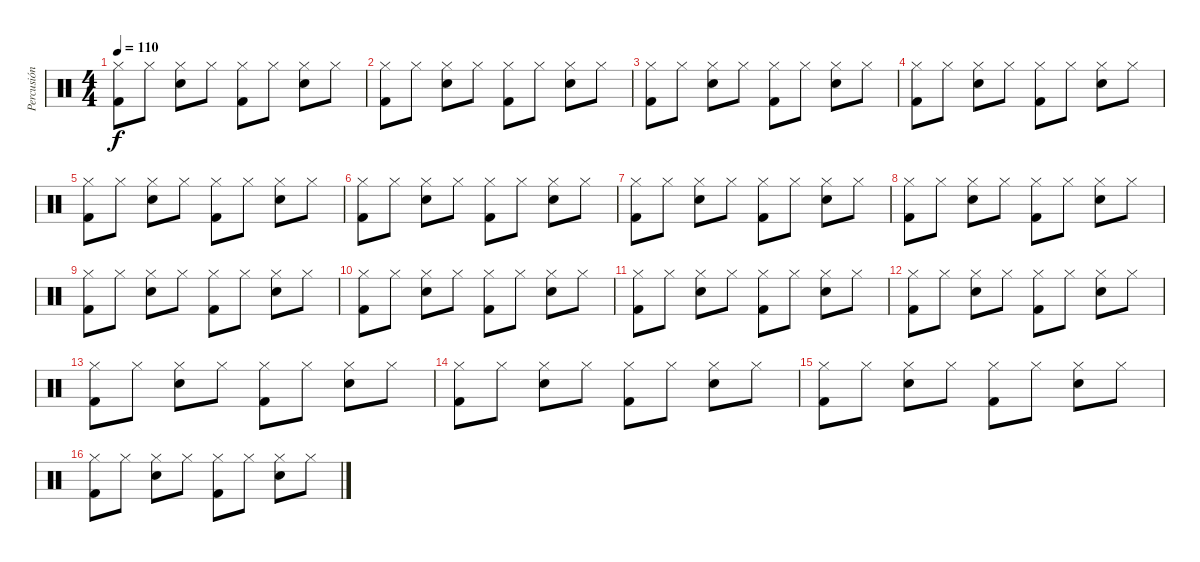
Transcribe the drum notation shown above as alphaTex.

\track ("Percusión" "Percusión") {instrument percussion}
\staff {score}
\articulation defaults
\ts (4 4)
\tempo 110
\clef neutral
\ks c
("Kick (hit) 2" "Hi-Hat (closed)").8{dy f} "Hi-Hat (closed)".8 ("Snare (hit) 2" "Hi-Hat (closed)").8 "Hi-Hat (closed)".8 ("Kick (hit) 2" "Hi-Hat (closed)").8 "Hi-Hat (closed)".8 ("Snare (hit) 2" "Hi-Hat (closed)").8 "Hi-Hat (closed)".8 |
("Kick (hit) 2" "Hi-Hat (closed)").8 "Hi-Hat (closed)".8 ("Snare (hit) 2" "Hi-Hat (closed)").8 "Hi-Hat (closed)".8 ("Kick (hit) 2" "Hi-Hat (closed)").8 "Hi-Hat (closed)".8 ("Snare (hit) 2" "Hi-Hat (closed)").8 "Hi-Hat (closed)".8 |
("Kick (hit) 2" "Hi-Hat (closed)").8 "Hi-Hat (closed)".8 ("Snare (hit) 2" "Hi-Hat (closed)").8 "Hi-Hat (closed)".8 ("Kick (hit) 2" "Hi-Hat (closed)").8 "Hi-Hat (closed)".8 ("Snare (hit) 2" "Hi-Hat (closed)").8 "Hi-Hat (closed)".8 |
("Kick (hit) 2" "Hi-Hat (closed)").8 "Hi-Hat (closed)".8 ("Snare (hit) 2" "Hi-Hat (closed)").8 "Hi-Hat (closed)".8 ("Kick (hit) 2" "Hi-Hat (closed)").8 "Hi-Hat (closed)".8 ("Snare (hit) 2" "Hi-Hat (closed)").8 "Hi-Hat (closed)".8 |
("Kick (hit) 2" "Hi-Hat (closed)").8 "Hi-Hat (closed)".8 ("Snare (hit) 2" "Hi-Hat (closed)").8 "Hi-Hat (closed)".8 ("Kick (hit) 2" "Hi-Hat (closed)").8 "Hi-Hat (closed)".8 ("Snare (hit) 2" "Hi-Hat (closed)").8 "Hi-Hat (closed)".8 |
("Kick (hit) 2" "Hi-Hat (closed)").8 "Hi-Hat (closed)".8 ("Snare (hit) 2" "Hi-Hat (closed)").8 "Hi-Hat (closed)".8 ("Kick (hit) 2" "Hi-Hat (closed)").8 "Hi-Hat (closed)".8 ("Snare (hit) 2" "Hi-Hat (closed)").8 "Hi-Hat (closed)".8 |
("Kick (hit) 2" "Hi-Hat (closed)").8 "Hi-Hat (closed)".8 ("Snare (hit) 2" "Hi-Hat (closed)").8 "Hi-Hat (closed)".8 ("Kick (hit) 2" "Hi-Hat (closed)").8 "Hi-Hat (closed)".8 ("Snare (hit) 2" "Hi-Hat (closed)").8 "Hi-Hat (closed)".8 |
("Kick (hit) 2" "Hi-Hat (closed)").8 "Hi-Hat (closed)".8 ("Snare (hit) 2" "Hi-Hat (closed)").8 "Hi-Hat (closed)".8 ("Kick (hit) 2" "Hi-Hat (closed)").8 "Hi-Hat (closed)".8 ("Snare (hit) 2" "Hi-Hat (closed)").8 "Hi-Hat (closed)".8 |
("Kick (hit) 2" "Hi-Hat (closed)").8 "Hi-Hat (closed)".8 ("Snare (hit) 2" "Hi-Hat (closed)").8 "Hi-Hat (closed)".8 ("Kick (hit) 2" "Hi-Hat (closed)").8 "Hi-Hat (closed)".8 ("Snare (hit) 2" "Hi-Hat (closed)").8 "Hi-Hat (closed)".8 |
("Kick (hit) 2" "Hi-Hat (closed)").8 "Hi-Hat (closed)".8 ("Snare (hit) 2" "Hi-Hat (closed)").8 "Hi-Hat (closed)".8 ("Kick (hit) 2" "Hi-Hat (closed)").8 "Hi-Hat (closed)".8 ("Snare (hit) 2" "Hi-Hat (closed)").8 "Hi-Hat (closed)".8 |
("Kick (hit) 2" "Hi-Hat (closed)").8 "Hi-Hat (closed)".8 ("Snare (hit) 2" "Hi-Hat (closed)").8 "Hi-Hat (closed)".8 ("Kick (hit) 2" "Hi-Hat (closed)").8 "Hi-Hat (closed)".8 ("Snare (hit) 2" "Hi-Hat (closed)").8 "Hi-Hat (closed)".8 |
("Kick (hit) 2" "Hi-Hat (closed)").8 "Hi-Hat (closed)".8 ("Snare (hit) 2" "Hi-Hat (closed)").8 "Hi-Hat (closed)".8 ("Kick (hit) 2" "Hi-Hat (closed)").8 "Hi-Hat (closed)".8 ("Snare (hit) 2" "Hi-Hat (closed)").8 "Hi-Hat (closed)".8 |
("Kick (hit) 2" "Hi-Hat (closed)").8{volume 13} "Hi-Hat (closed)".8{volume 12} ("Snare (hit) 2" "Hi-Hat (closed)").8{volume 12} "Hi-Hat (closed)".8{volume 12} ("Kick (hit) 2" "Hi-Hat (closed)").8{volume 11} "Hi-Hat (closed)".8{volume 11} ("Snare (hit) 2" "Hi-Hat (closed)").8{volume 10} "Hi-Hat (closed)".8{volume 10} |
("Kick (hit) 2" "Hi-Hat (closed)").8{volume 9} "Hi-Hat (closed)".8{volume 9} ("Snare (hit) 2" "Hi-Hat (closed)").8{volume 8} "Hi-Hat (closed)".8{volume 8} ("Kick (hit) 2" "Hi-Hat (closed)").8{volume 8} "Hi-Hat (closed)".8{volume 7} ("Snare (hit) 2" "Hi-Hat (closed)").8{volume 7} "Hi-Hat (closed)".8{volume 6} |
("Kick (hit) 2" "Hi-Hat (closed)").8{volume 6} "Hi-Hat (closed)".8{volume 6} ("Snare (hit) 2" "Hi-Hat (closed)").8{volume 5} "Hi-Hat (closed)".8{volume 5} ("Kick (hit) 2" "Hi-Hat (closed)").8{volume 4} "Hi-Hat (closed)".8{volume 4} ("Snare (hit) 2" "Hi-Hat (closed)").8{volume 3} "Hi-Hat (closed)".8{volume 3} |
("Kick (hit) 2" "Hi-Hat (closed)").8{volume 2} "Hi-Hat (closed)".8{volume 2} ("Snare (hit) 2" "Hi-Hat (closed)").8{volume 2} "Hi-Hat (closed)".8{volume 1} ("Kick (hit) 2" "Hi-Hat (closed)").8{volume 1} "Hi-Hat (closed)".8{volume 0} ("Snare (hit) 2" "Hi-Hat (closed)").8{volume 0} "Hi-Hat (closed)".8
